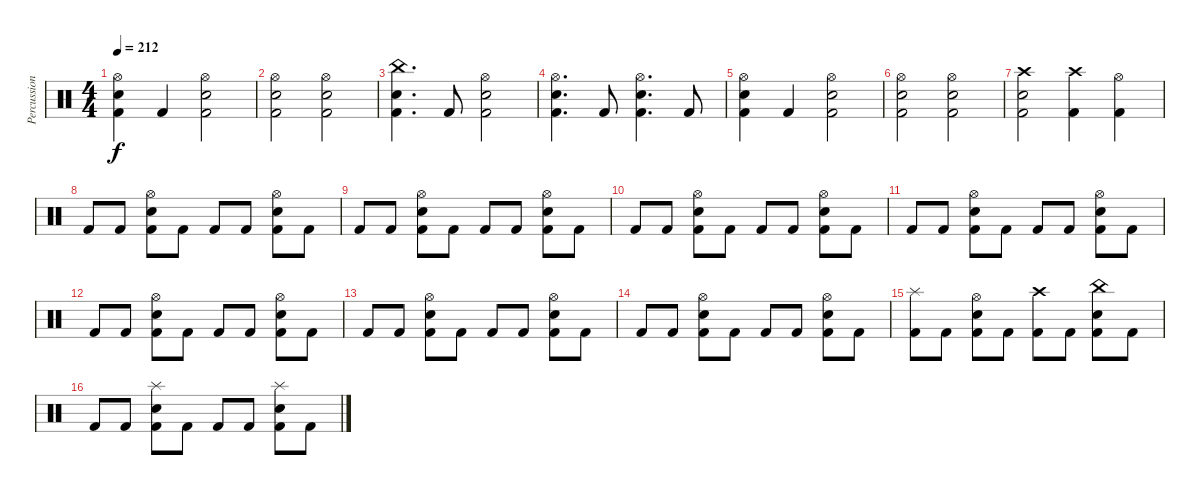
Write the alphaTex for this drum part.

\track ("Percussions" "Percussion") {instrument percussion}
\staff {score}
\articulation defaults
\ts (4 4)
\tempo 212
\clef neutral
\ks c
("Hi-Hat (open)" "Snare (hit) 2" "Kick (hit) 2").4{dy f} "Kick (hit) 2".4 ("Hi-Hat (open)" "Snare (hit) 2" "Kick (hit) 2").2 |
("Hi-Hat (open)" "Snare (hit) 2" "Kick (hit) 2").2 ("Hi-Hat (open)" "Snare (hit) 2" "Kick (hit) 2").2 |
("China (hit)" "Snare (hit) 2" "Kick (hit) 2").4{d} "Kick (hit) 2".8 ("Hi-Hat (open)" "Snare (hit) 2" "Kick (hit) 2").2 |
("Hi-Hat (open)" "Snare (hit) 2" "Kick (hit) 2").4{d} "Kick (hit) 2".8 ("Hi-Hat (open)" "Snare (hit) 2" "Kick (hit) 2").4{d} "Kick (hit) 2".8 |
("Hi-Hat (open)" "Snare (hit) 2" "Kick (hit) 2").4 "Kick (hit) 2".4 ("Hi-Hat (open)" "Snare (hit) 2" "Kick (hit) 2").2 |
("Hi-Hat (open)" "Snare (hit) 2" "Kick (hit) 2").2 ("Hi-Hat (open)" "Snare (hit) 2" "Kick (hit) 2").2 |
("Crash high (hit)" "Snare (hit) 2" "Kick (hit) 2").2 ("Crash high (hit)" "Kick (hit) 2").4 ("Hi-Hat (open)" "Kick (hit) 2").4 |
"Kick (hit) 2".8 "Kick (hit) 2".8 ("Hi-Hat (open)" "Snare (hit) 2" "Kick (hit) 2").8 "Kick (hit) 2".8 "Kick (hit) 2".8 "Kick (hit) 2".8 ("Hi-Hat (open)" "Snare (hit) 2" "Kick (hit) 2").8 "Kick (hit) 2".8 |
"Kick (hit) 2".8 "Kick (hit) 2".8 ("Hi-Hat (open)" "Snare (hit) 2" "Kick (hit) 2").8 "Kick (hit) 2".8 "Kick (hit) 2".8 "Kick (hit) 2".8 ("Hi-Hat (open)" "Snare (hit) 2" "Kick (hit) 2").8 "Kick (hit) 2".8 |
"Kick (hit) 2".8 "Kick (hit) 2".8 ("Hi-Hat (open)" "Snare (hit) 2" "Kick (hit) 2").8 "Kick (hit) 2".8 "Kick (hit) 2".8 "Kick (hit) 2".8 ("Hi-Hat (open)" "Snare (hit) 2" "Kick (hit) 2").8 "Kick (hit) 2".8 |
"Kick (hit) 2".8 "Kick (hit) 2".8 ("Hi-Hat (open)" "Snare (hit) 2" "Kick (hit) 2").8 "Kick (hit) 2".8 "Kick (hit) 2".8 "Kick (hit) 2".8 ("Hi-Hat (open)" "Snare (hit) 2" "Kick (hit) 2").8 "Kick (hit) 2".8 |
"Kick (hit) 2".8 "Kick (hit) 2".8 ("Hi-Hat (open)" "Snare (hit) 2" "Kick (hit) 2").8 "Kick (hit) 2".8 "Kick (hit) 2".8 "Kick (hit) 2".8 ("Hi-Hat (open)" "Snare (hit) 2" "Kick (hit) 2").8 "Kick (hit) 2".8 |
"Kick (hit) 2".8 "Kick (hit) 2".8 ("Hi-Hat (open)" "Snare (hit) 2" "Kick (hit) 2").8 "Kick (hit) 2".8 "Kick (hit) 2".8 "Kick (hit) 2".8 ("Hi-Hat (open)" "Snare (hit) 2" "Kick (hit) 2").8 "Kick (hit) 2".8 |
"Kick (hit) 2".8 "Kick (hit) 2".8 ("Hi-Hat (open)" "Snare (hit) 2" "Kick (hit) 2").8 "Kick (hit) 2".8 "Kick (hit) 2".8 "Kick (hit) 2".8 ("Hi-Hat (open)" "Snare (hit) 2" "Kick (hit) 2").8 "Kick (hit) 2".8 |
("Splash (hit)" "Kick (hit) 2").8 "Kick (hit) 2".8 ("Hi-Hat (open)" "Snare (hit) 2" "Kick (hit) 2").8 "Kick (hit) 2".8 ("Crash high (hit)" "Kick (hit) 2").8 "Kick (hit) 2".8 ("China (hit)" "Snare (hit) 2" "Kick (hit) 2").8 "Kick (hit) 2".8 |
"Kick (hit) 2".8 "Kick (hit) 2".8 ("Splash (hit)" "Snare (hit) 2" "Kick (hit) 2").8 "Kick (hit) 2".8 "Kick (hit) 2".8 "Kick (hit) 2".8 ("Splash (hit)" "Snare (hit) 2" "Kick (hit) 2").8 "Kick (hit) 2".8
